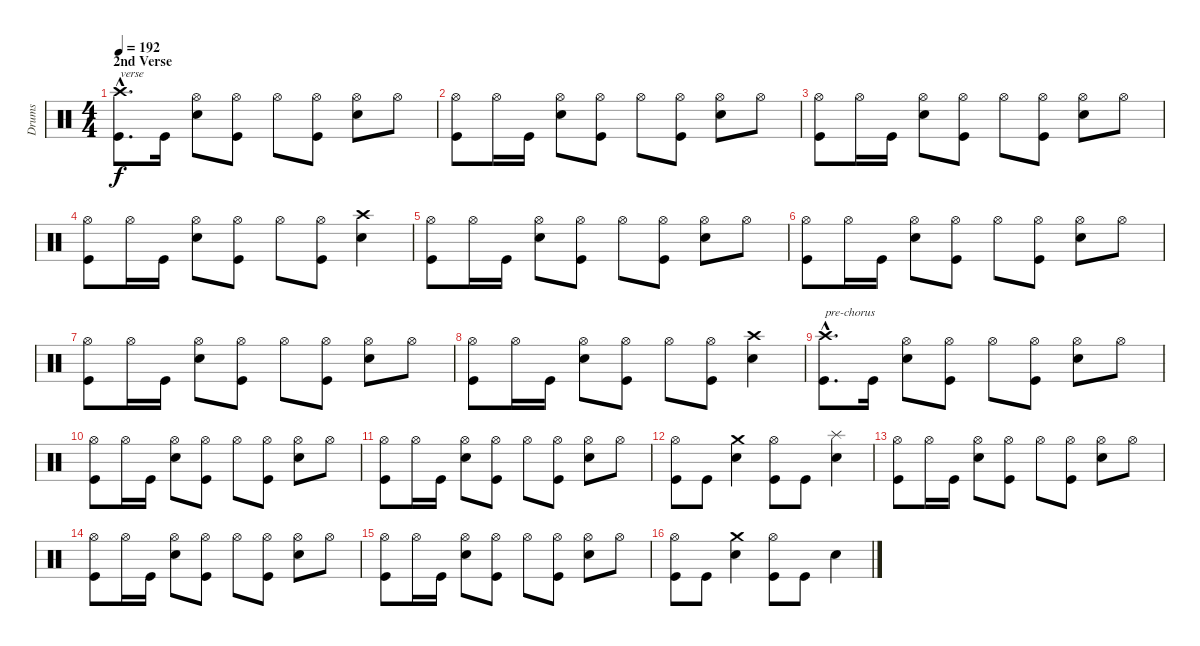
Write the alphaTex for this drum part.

\track ("Drums" "Drums") {instrument percussion}
\staff {score}
\articulation defaults
\ts (4 4)
\section ("" "2nd Verse")
\tempo 192
\clef neutral
\ks c
("Kick (hit)"{hac} "Crash high (hit)"{hac}).8{d txt "verse" dy f} "Kick (hit)".16 ("Electric Snare (hit)" "Hi-Hat (open)").8 ("Kick (hit)" "Hi-Hat (open)").8 "Hi-Hat (open)".8 ("Kick (hit)" "Hi-Hat (open)").8 ("Electric Snare (hit)" "Hi-Hat (open)").8 "Hi-Hat (open)".8 |
("Kick (hit)" "Hi-Hat (open)").8 "Hi-Hat (open)".16 "Kick (hit)".16 ("Electric Snare (hit)" "Hi-Hat (open)").8 ("Kick (hit)" "Hi-Hat (open)").8 "Hi-Hat (open)".8 ("Kick (hit)" "Hi-Hat (open)").8 ("Electric Snare (hit)" "Hi-Hat (open)").8 "Hi-Hat (open)".8 |
("Kick (hit)" "Hi-Hat (open)").8 "Hi-Hat (open)".16 "Kick (hit)".16 ("Electric Snare (hit)" "Hi-Hat (open)").8 ("Kick (hit)" "Hi-Hat (open)").8 "Hi-Hat (open)".8 ("Kick (hit)" "Hi-Hat (open)").8 ("Electric Snare (hit)" "Hi-Hat (open)").8 "Hi-Hat (open)".8 |
("Kick (hit)" "Hi-Hat (open)").8 "Hi-Hat (open)".16 "Kick (hit)".16 ("Electric Snare (hit)" "Hi-Hat (open)").8 ("Kick (hit)" "Hi-Hat (open)").8 "Hi-Hat (open)".8 ("Kick (hit)" "Hi-Hat (open)").8 ("Electric Snare (hit)" "Crash high (hit)").4 |
("Kick (hit)" "Hi-Hat (open)").8 "Hi-Hat (open)".16 "Kick (hit)".16 ("Electric Snare (hit)" "Hi-Hat (open)").8 ("Kick (hit)" "Hi-Hat (open)").8 "Hi-Hat (open)".8 ("Kick (hit)" "Hi-Hat (open)").8 ("Electric Snare (hit)" "Hi-Hat (open)").8 "Hi-Hat (open)".8 |
("Kick (hit)" "Hi-Hat (open)").8 "Hi-Hat (open)".16 "Kick (hit)".16 ("Electric Snare (hit)" "Hi-Hat (open)").8 ("Kick (hit)" "Hi-Hat (open)").8 "Hi-Hat (open)".8 ("Kick (hit)" "Hi-Hat (open)").8 ("Electric Snare (hit)" "Hi-Hat (open)").8 "Hi-Hat (open)".8 |
("Kick (hit)" "Hi-Hat (open)").8 "Hi-Hat (open)".16 "Kick (hit)".16 ("Electric Snare (hit)" "Hi-Hat (open)").8 ("Kick (hit)" "Hi-Hat (open)").8 "Hi-Hat (open)".8 ("Kick (hit)" "Hi-Hat (open)").8 ("Electric Snare (hit)" "Hi-Hat (open)").8 "Hi-Hat (open)".8 |
("Kick (hit)" "Hi-Hat (open)").8 "Hi-Hat (open)".16 "Kick (hit)".16 ("Electric Snare (hit)" "Hi-Hat (open)").8 ("Kick (hit)" "Hi-Hat (open)").8 "Hi-Hat (open)".8 ("Kick (hit)" "Hi-Hat (open)").8 ("Electric Snare (hit)" "Crash high (hit)").4 |
("Kick (hit)"{hac} "Crash high (hit)"{hac}).8{d txt "pre-chorus"} "Kick (hit)".16 ("Electric Snare (hit)" "Hi-Hat (open)").8 ("Kick (hit)" "Hi-Hat (open)").8 "Hi-Hat (open)".8 ("Kick (hit)" "Hi-Hat (open)").8 ("Electric Snare (hit)" "Hi-Hat (open)").8 "Hi-Hat (open)".8 |
("Kick (hit)" "Hi-Hat (open)").8 "Hi-Hat (open)".16 "Kick (hit)".16 ("Electric Snare (hit)" "Hi-Hat (open)").8 ("Kick (hit)" "Hi-Hat (open)").8 "Hi-Hat (open)".8 ("Kick (hit)" "Hi-Hat (open)").8 ("Electric Snare (hit)" "Hi-Hat (open)").8 "Hi-Hat (open)".8 |
("Kick (hit)" "Hi-Hat (open)").8 "Hi-Hat (open)".16 "Kick (hit)".16 ("Electric Snare (hit)" "Hi-Hat (open)").8 ("Kick (hit)" "Hi-Hat (open)").8 "Hi-Hat (open)".8 ("Kick (hit)" "Hi-Hat (open)").8 ("Electric Snare (hit)" "Hi-Hat (open)").8 "Hi-Hat (open)".8 |
("Kick (hit)" "Hi-Hat (open)").8 "Kick (hit)".8 ("Electric Snare (hit)" "Crash medium (hit)").4 ("Kick (hit)" "Hi-Hat (open)").8 "Kick (hit)".8 ("Electric Snare (hit)" "Splash (hit)").4 |
("Kick (hit)" "Hi-Hat (open)").8 "Hi-Hat (open)".16 "Kick (hit)".16 ("Electric Snare (hit)" "Hi-Hat (open)").8 ("Kick (hit)" "Hi-Hat (open)").8 "Hi-Hat (open)".8 ("Kick (hit)" "Hi-Hat (open)").8 ("Electric Snare (hit)" "Hi-Hat (open)").8 "Hi-Hat (open)".8 |
("Kick (hit)" "Hi-Hat (open)").8 "Hi-Hat (open)".16 "Kick (hit)".16 ("Electric Snare (hit)" "Hi-Hat (open)").8 ("Kick (hit)" "Hi-Hat (open)").8 "Hi-Hat (open)".8 ("Kick (hit)" "Hi-Hat (open)").8 ("Electric Snare (hit)" "Hi-Hat (open)").8 "Hi-Hat (open)".8 |
("Kick (hit)" "Hi-Hat (open)").8 "Hi-Hat (open)".16 "Kick (hit)".16 ("Electric Snare (hit)" "Hi-Hat (open)").8 ("Kick (hit)" "Hi-Hat (open)").8 "Hi-Hat (open)".8 ("Kick (hit)" "Hi-Hat (open)").8 ("Electric Snare (hit)" "Hi-Hat (open)").8 "Hi-Hat (open)".8 |
("Kick (hit)" "Hi-Hat (open)").8 "Kick (hit)".8 ("Electric Snare (hit)" "Crash medium (hit)").4 ("Kick (hit)" "Hi-Hat (open)").8 "Kick (hit)".8 "Electric Snare (hit)".4
